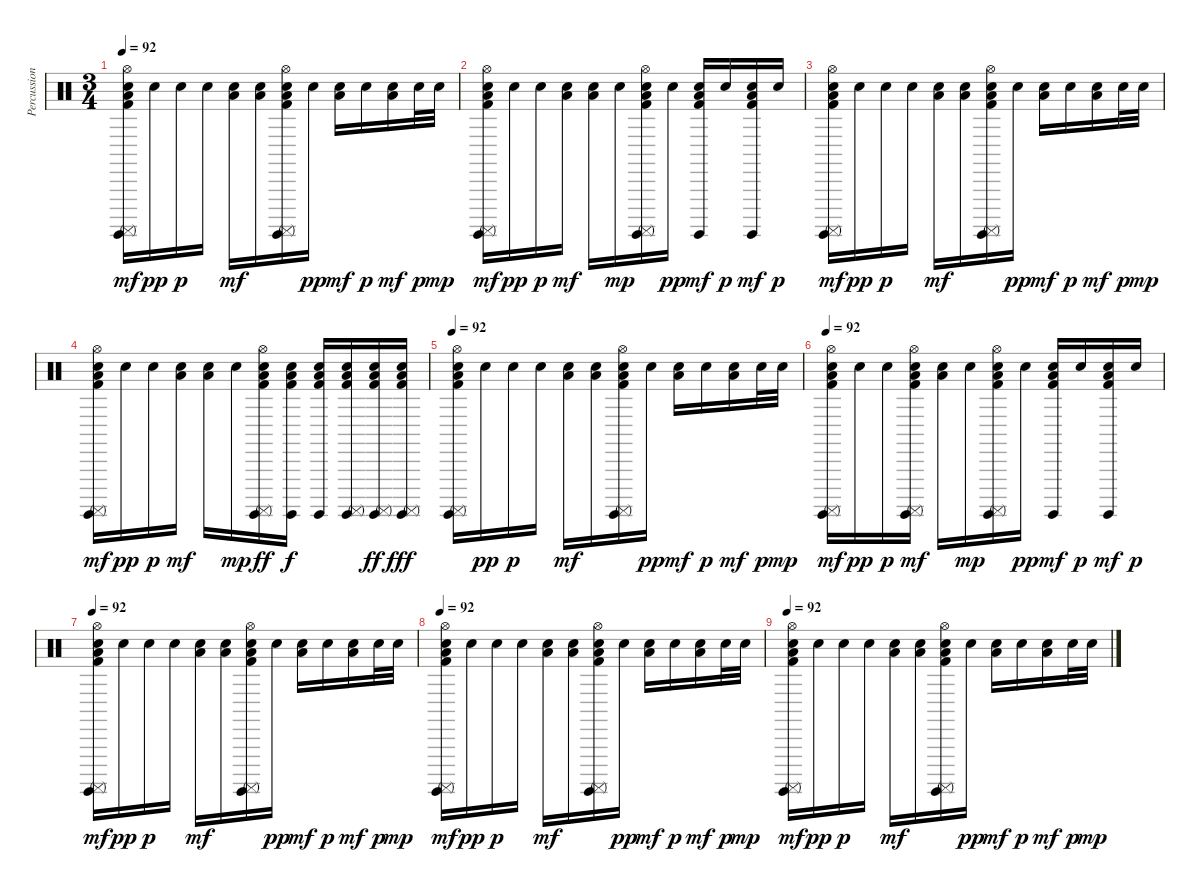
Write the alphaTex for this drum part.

\track ("Percussion" "Percussion") {instrument percussion}
\staff
\articulation defaults
\ts (3 4)
\tempo 92
\clef neutral
\ks c
("Hi-Hat (open)" "Surdo (mute)" "Snare (hit) 2" "Surdo (hit)" "Low Floor Tom (hit)" "Kick (hit) 2").16{dy mf} "Snare (hit) 2".16{dy pp} "Snare (hit) 2".16{dy p} "Snare (hit) 2".16 ("Snare (hit) 2" "Low Floor Tom (hit)").16{dy mf} ("Snare (hit) 2" "Low Floor Tom (hit)").16 ("Hi-Hat (open)" "Surdo (mute)" "Snare (hit) 2" "Surdo (hit)" "Low Floor Tom (hit)" "Kick (hit) 2").16 "Snare (hit) 2".16{dy pp} ("Snare (hit) 2" "Low Floor Tom (hit)").16{dy mf} "Snare (hit) 2".16{dy p} ("Snare (hit) 2" "Low Floor Tom (hit)").16{dy mf} "Snare (hit) 2".32{dy p} "Snare (hit) 2".32{dy mp} |
("Hi-Hat (open)" "Surdo (mute)" "Snare (hit) 2" "Surdo (hit)" "Low Floor Tom (hit)" "Kick (hit) 2").16{dy mf} "Snare (hit) 2".16{dy pp} "Snare (hit) 2".16{dy p} ("Snare (hit) 2" "Low Floor Tom (hit)").16{dy mf} ("Snare (hit) 2" "Low Floor Tom (hit)").16 "Snare (hit) 2".16{dy mp} ("Hi-Hat (open)" "Surdo (mute)" "Snare (hit) 2" "Surdo (hit)" "Low Floor Tom (hit)" "Kick (hit) 2").16 "Snare (hit) 2".16{dy pp} ("Surdo (hit)" "Snare (hit) 2" "Low Floor Tom (hit)" "Kick (hit) 2").16{dy mf} "Snare (hit) 2".16{dy p} ("Surdo (hit)" "Snare (hit) 2" "Low Floor Tom (hit)" "Kick (hit) 2").16{dy mf} "Snare (hit) 2".16{dy p} |
("Hi-Hat (open)" "Surdo (mute)" "Snare (hit) 2" "Surdo (hit)" "Low Floor Tom (hit)" "Kick (hit) 2").16{dy mf volume 8} "Snare (hit) 2".16{dy pp} "Snare (hit) 2".16{dy p} "Snare (hit) 2".16 ("Snare (hit) 2" "Low Floor Tom (hit)").16{dy mf} ("Snare (hit) 2" "Low Floor Tom (hit)").16 ("Hi-Hat (open)" "Surdo (mute)" "Snare (hit) 2" "Surdo (hit)" "Low Floor Tom (hit)" "Kick (hit) 2").16 "Snare (hit) 2".16{dy pp} ("Snare (hit) 2" "Low Floor Tom (hit)").16{dy mf} "Snare (hit) 2".16{dy p} ("Snare (hit) 2" "Low Floor Tom (hit)").16{dy mf} "Snare (hit) 2".32{dy p} "Snare (hit) 2".32{dy mp} |
("Hi-Hat (open)" "Surdo (mute)" "Snare (hit) 2" "Surdo (hit)" "Low Floor Tom (hit)" "Kick (hit) 2").16{dy mf} "Snare (hit) 2".16{dy pp} "Snare (hit) 2".16{dy p} ("Snare (hit) 2" "Low Floor Tom (hit)").16{dy mf} ("Snare (hit) 2" "Low Floor Tom (hit)").16 "Snare (hit) 2".16{dy mp} ("Hi-Hat (open)" "Surdo (mute)" "Snare (hit) 2" "Surdo (hit)" "Low Floor Tom (hit)" "Kick (hit) 2").16{dy ff} ("Snare (hit) 2" "Surdo (hit)" "Low Floor Tom (hit)" "Kick (hit) 2").16{dy f} ("Snare (hit) 2" "Surdo (hit)" "Low Floor Tom (hit)" "Kick (hit) 2").16 ("Surdo (mute)" "Snare (hit) 2" "Surdo (hit)" "Low Floor Tom (hit)" "Kick (hit) 2").16 ("Surdo (mute)" "Snare (hit) 2" "Surdo (hit)" "Low Floor Tom (hit)" "Kick (hit) 2").16{dy ff} ("Surdo (mute)" "Snare (hit) 2" "Surdo (hit)" "Low Floor Tom (hit)" "Kick (hit) 2").16{dy fff} |
\tempo 92
("Hi-Hat (open)" "Surdo (mute)" "Snare (hit) 2" "Surdo (hit)" "Low Floor Tom (hit)" "Kick (hit) 2").16 "Snare (hit) 2".16{dy pp} "Snare (hit) 2".16{dy p} "Snare (hit) 2".16 ("Snare (hit) 2" "Low Floor Tom (hit)").16{dy mf} ("Snare (hit) 2" "Low Floor Tom (hit)").16 ("Hi-Hat (open)" "Surdo (mute)" "Snare (hit) 2" "Surdo (hit)" "Low Floor Tom (hit)" "Kick (hit) 2").16 "Snare (hit) 2".16{dy pp} ("Snare (hit) 2" "Low Floor Tom (hit)").16{dy mf} "Snare (hit) 2".16{dy p} ("Snare (hit) 2" "Low Floor Tom (hit)").16{dy mf} "Snare (hit) 2".32{dy p} "Snare (hit) 2".32{dy mp} |
\tempo 92
("Hi-Hat (open)" "Surdo (mute)" "Snare (hit) 2" "Surdo (hit)" "Low Floor Tom (hit)" "Kick (hit) 2").16{dy mf} "Snare (hit) 2".16{dy pp} "Snare (hit) 2".16{dy p} ("Hi-Hat (open)" "Surdo (mute)" "Snare (hit) 2" "Surdo (hit)" "Low Floor Tom (hit)" "Kick (hit) 2").16{dy mf} ("Snare (hit) 2" "Low Floor Tom (hit)").16 "Snare (hit) 2".16{dy mp} ("Hi-Hat (open)" "Surdo (mute)" "Snare (hit) 2" "Surdo (hit)" "Low Floor Tom (hit)" "Kick (hit) 2").16 "Snare (hit) 2".16{dy pp} ("Surdo (hit)" "Snare (hit) 2" "Low Floor Tom (hit)" "Kick (hit) 2").16{dy mf} "Snare (hit) 2".16{dy p} ("Surdo (hit)" "Snare (hit) 2" "Low Floor Tom (hit)" "Kick (hit) 2").16{dy mf} "Snare (hit) 2".16{dy p} |
\tempo 92
("Hi-Hat (open)" "Surdo (mute)" "Snare (hit) 2" "Surdo (hit)" "Low Floor Tom (hit)" "Kick (hit) 2").16{dy mf} "Snare (hit) 2".16{dy pp} "Snare (hit) 2".16{dy p} "Snare (hit) 2".16 ("Snare (hit) 2" "Low Floor Tom (hit)").16{dy mf} ("Snare (hit) 2" "Low Floor Tom (hit)").16 ("Hi-Hat (open)" "Surdo (mute)" "Snare (hit) 2" "Surdo (hit)" "Low Floor Tom (hit)" "Kick (hit) 2").16 "Snare (hit) 2".16{dy pp} ("Snare (hit) 2" "Low Floor Tom (hit)").16{dy mf} "Snare (hit) 2".16{dy p} ("Snare (hit) 2" "Low Floor Tom (hit)").16{dy mf} "Snare (hit) 2".32{dy p} "Snare (hit) 2".32{dy mp} |
\tempo 92
("Hi-Hat (open)" "Surdo (mute)" "Snare (hit) 2" "Surdo (hit)" "Low Floor Tom (hit)" "Kick (hit) 2").16{dy mf volume 10} "Snare (hit) 2".16{dy pp} "Snare (hit) 2".16{dy p} "Snare (hit) 2".16 ("Snare (hit) 2" "Low Floor Tom (hit)").16{dy mf} ("Snare (hit) 2" "Low Floor Tom (hit)").16 ("Hi-Hat (open)" "Surdo (mute)" "Snare (hit) 2" "Surdo (hit)" "Low Floor Tom (hit)" "Kick (hit) 2").16 "Snare (hit) 2".16{dy pp} ("Snare (hit) 2" "Low Floor Tom (hit)").16{dy mf} "Snare (hit) 2".16{dy p} ("Snare (hit) 2" "Low Floor Tom (hit)").16{dy mf} "Snare (hit) 2".32{dy p} "Snare (hit) 2".32{dy mp} |
\tempo 92
("Hi-Hat (open)" "Surdo (mute)" "Snare (hit) 2" "Surdo (hit)" "Low Floor Tom (hit)" "Kick (hit) 2").16{dy mf} "Snare (hit) 2".16{dy pp} "Snare (hit) 2".16{dy p} "Snare (hit) 2".16 ("Snare (hit) 2" "Low Floor Tom (hit)").16{dy mf} ("Snare (hit) 2" "Low Floor Tom (hit)").16 ("Hi-Hat (open)" "Surdo (mute)" "Snare (hit) 2" "Surdo (hit)" "Low Floor Tom (hit)" "Kick (hit) 2").16 "Snare (hit) 2".16{dy pp} ("Snare (hit) 2" "Low Floor Tom (hit)").16{dy mf} "Snare (hit) 2".16{dy p} ("Snare (hit) 2" "Low Floor Tom (hit)").16{dy mf} "Snare (hit) 2".32{dy p} "Snare (hit) 2".32{dy mp}
